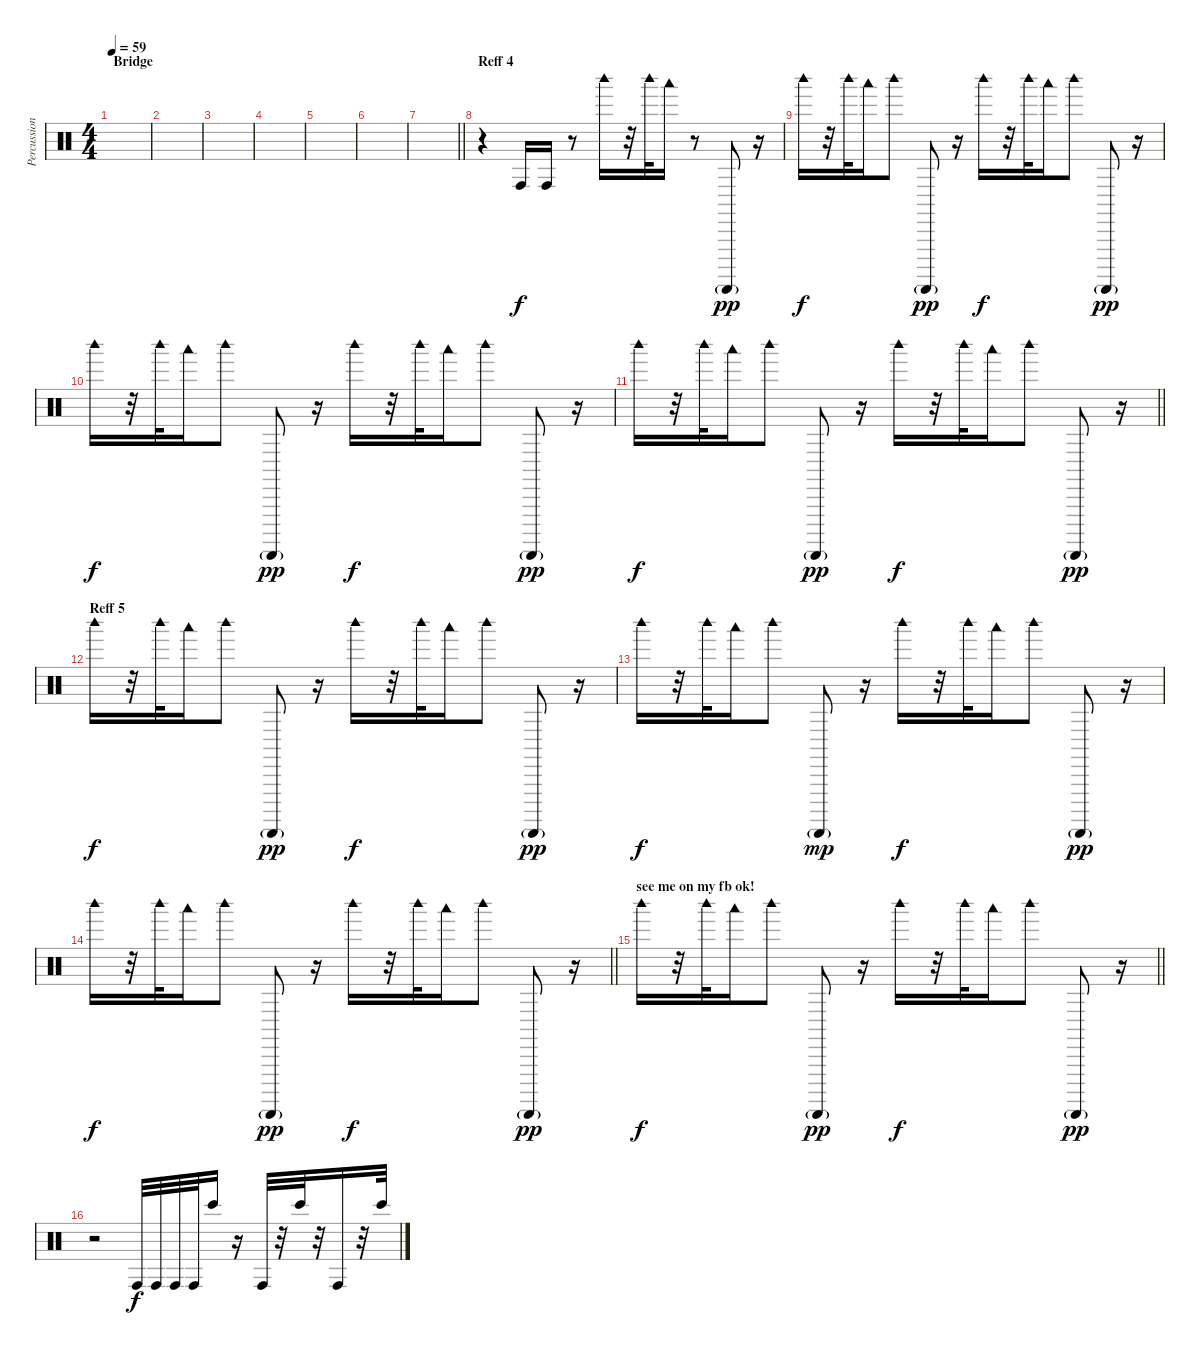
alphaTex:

\track ("Percussion 2" "Percussion") {instrument percussion}
\staff {score}
\articulation defaults
\ts (4 4)
\section ("" "Bridge")
\tempo 59
\clef neutral
\ks c
|
|
|
|
|
|
\barLineRight lightlight
|
\section ("" "Reff 4")
r.4 "Conga high (hit)".16{dy f} "Conga high (hit)".16 r.8 "Woodblock high (hit)".16 r.32 "Woodblock high (hit)".32 "Woodblock low (hit)".16 r.8 "Guiro (scrap-return)"{g}.8{dy pp} r.16 |
"Woodblock high (hit)".16{dy f} r.32 "Woodblock high (hit)".32 "Woodblock low (hit)".16 "Woodblock high (hit)".8 "Guiro (scrap-return)"{g}.8{dy pp} r.16 "Woodblock high (hit)".16{dy f} r.32 "Woodblock high (hit)".32 "Woodblock low (hit)".16 "Woodblock high (hit)".8 "Guiro (scrap-return)"{g}.8{dy pp} r.16 |
"Woodblock high (hit)".16{dy f} r.32 "Woodblock high (hit)".32 "Woodblock low (hit)".16 "Woodblock high (hit)".8 "Guiro (scrap-return)"{g}.8{dy pp} r.16 "Woodblock high (hit)".16{dy f} r.32 "Woodblock high (hit)".32 "Woodblock low (hit)".16 "Woodblock high (hit)".8 "Guiro (scrap-return)"{g}.8{dy pp} r.16 |
\barLineRight lightlight "Woodblock high (hit)".16{dy f}
r.32 "Woodblock high (hit)".32 "Woodblock low (hit)".16 "Woodblock high (hit)".8 "Guiro (scrap-return)"{g}.8{dy pp} r.16 "Woodblock high (hit)".16{dy f} r.32 "Woodblock high (hit)".32 "Woodblock low (hit)".16 "Woodblock high (hit)".8 "Guiro (scrap-return)"{g}.8{dy pp} r.16 |
\section ("" "Reff 5")
"Woodblock high (hit)".16{dy f} r.32 "Woodblock high (hit)".32 "Woodblock low (hit)".16 "Woodblock high (hit)".8 "Guiro (scrap-return)"{g}.8{dy pp} r.16 "Woodblock high (hit)".16{dy f} r.32 "Woodblock high (hit)".32 "Woodblock low (hit)".16 "Woodblock high (hit)".8 "Guiro (scrap-return)"{g}.8{dy pp} r.16 |
"Woodblock high (hit)".16{dy f} r.32 "Woodblock high (hit)".32 "Woodblock low (hit)".16 "Woodblock high (hit)".8 "Guiro (scrap-return)"{g}.8{dy mp} r.16 "Woodblock high (hit)".16{dy f} r.32 "Woodblock high (hit)".32 "Woodblock low (hit)".16 "Woodblock high (hit)".8 "Guiro (scrap-return)"{g}.8{dy pp} r.16 |
\barLineRight lightlight "Woodblock high (hit)".16{dy f}
r.32 "Woodblock high (hit)".32 "Woodblock low (hit)".16 "Woodblock high (hit)".8 "Guiro (scrap-return)"{g}.8{dy pp} r.16 "Woodblock high (hit)".16{dy f} r.32 "Woodblock high (hit)".32 "Woodblock low (hit)".16 "Woodblock high (hit)".8 "Guiro (scrap-return)"{g}.8{dy pp} r.16 |
\section ("" "see me on my fb ok!")
\barLineRight lightlight "Woodblock high (hit)".16{dy f}
r.32 "Woodblock high (hit)".32 "Woodblock low (hit)".16 "Woodblock high (hit)".8 "Guiro (scrap-return)"{g}.8{dy pp} r.16 "Woodblock high (hit)".16{dy f} r.32 "Woodblock high (hit)".32 "Woodblock low (hit)".16 "Woodblock high (hit)".8 "Guiro (scrap-return)"{g}.8{dy pp} r.16 |
r.2 "Conga high (hit)".32{dy f} "Conga high (hit)".32 "Conga high (hit)".32 "Conga high (hit)".32 "Bongo High (hit)".16 r.16 "Conga high (hit)".32 r.32 "Bongo High (hit)".32 r.32 "Conga high (hit)".16 r.32 "Bongo High (hit)".32
